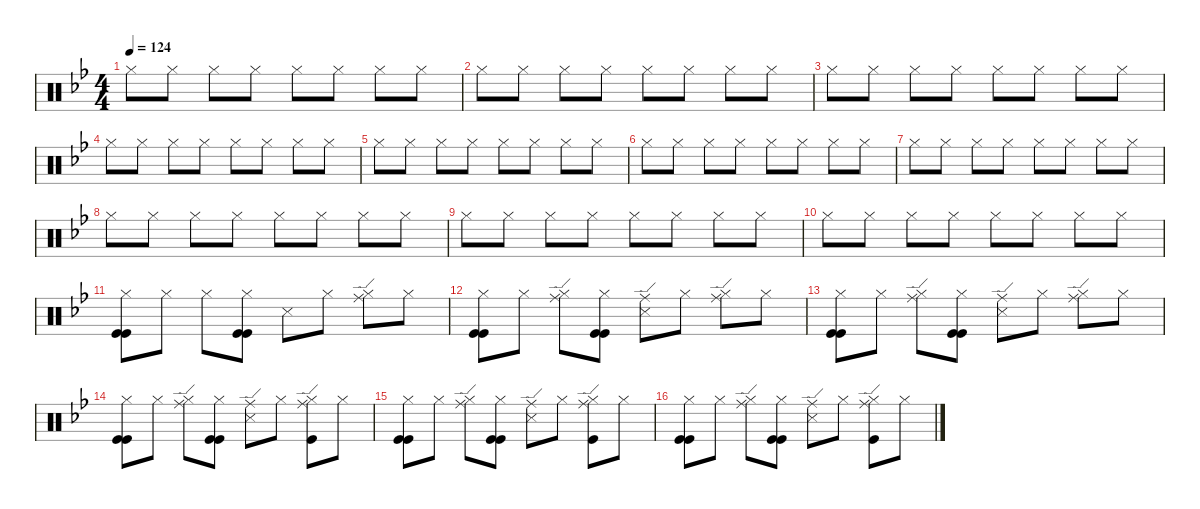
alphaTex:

\defaultSystemsLayout 4
\hideDynamics
\bracketExtendMode nobrackets
\singleTrackTrackNamePolicy hidden
\multiTrackTrackNamePolicy hidden
\firstSystemTrackNameMode fullname
\otherSystemsTrackNameOrientation horizontal
\track ("Percussion" "drm.") {defaultSystemsLayout 4 instrument percussion}
\staff {score}
\articulation defaults
\ts (4 4)
\tempo 124
\clef neutral
\ks gminor "Hi-Hat (closed)"{acc forcenatural}.8{dy f beam Down} "Hi-Hat (closed)"{acc forcenatural}.8{beam Down} "Hi-Hat (closed)"{acc forcenatural}.8{beam Down} "Hi-Hat (closed)"{acc forcenatural}.8{beam Down} "Hi-Hat (closed)"{acc forcenatural}.8{beam Down} "Hi-Hat (closed)"{acc forcenatural}.8{beam Down} "Hi-Hat (closed)"{acc forcenatural}.8{beam Down} "Hi-Hat (closed)"{acc forcenatural}.8{beam Down}
|
"Hi-Hat (closed)"{acc forcenatural}.8{beam Down} "Hi-Hat (closed)"{acc forcenatural}.8{beam Down} "Hi-Hat (closed)"{acc forcenatural}.8{beam Down} "Hi-Hat (closed)"{acc forcenatural}.8{beam Down} "Hi-Hat (closed)"{acc forcenatural}.8{beam Down} "Hi-Hat (closed)"{acc forcenatural}.8{beam Down} "Hi-Hat (closed)"{acc forcenatural}.8{beam Down} "Hi-Hat (closed)"{acc forcenatural}.8{beam Down} |
"Hi-Hat (closed)"{acc forcenatural}.8{beam Down} "Hi-Hat (closed)"{acc forcenatural}.8{beam Down} "Hi-Hat (closed)"{acc forcenatural}.8{beam Down} "Hi-Hat (closed)"{acc forcenatural}.8{beam Down} "Hi-Hat (closed)"{acc forcenatural}.8{beam Down} "Hi-Hat (closed)"{acc forcenatural}.8{beam Down} "Hi-Hat (closed)"{acc forcenatural}.8{beam Down} "Hi-Hat (closed)"{acc forcenatural}.8{beam Down} |
"Hi-Hat (closed)"{acc forcenatural}.8{beam Down} "Hi-Hat (closed)"{acc forcenatural}.8{beam Down} "Hi-Hat (closed)"{acc forcenatural}.8{beam Down} "Hi-Hat (closed)"{acc forcenatural}.8{beam Down} "Hi-Hat (closed)"{acc forcenatural}.8{beam Down} "Hi-Hat (closed)"{acc forcenatural}.8{beam Down} "Hi-Hat (closed)"{acc forcenatural}.8{beam Down} "Hi-Hat (closed)"{acc forcenatural}.8{beam Down} |
"Hi-Hat (closed)"{acc forcenatural}.8{beam Down} "Hi-Hat (closed)"{acc forcenatural}.8{beam Down} "Hi-Hat (closed)"{acc forcenatural}.8{beam Down} "Hi-Hat (closed)"{acc forcenatural}.8{beam Down} "Hi-Hat (closed)"{acc forcenatural}.8{beam Down} "Hi-Hat (closed)"{acc forcenatural}.8{beam Down} "Hi-Hat (closed)"{acc forcenatural}.8{beam Down} "Hi-Hat (closed)"{acc forcenatural}.8{beam Down} |
"Hi-Hat (closed)"{acc forcenatural}.8{beam Down} "Hi-Hat (closed)"{acc forcenatural}.8{beam Down} "Hi-Hat (closed)"{acc forcenatural}.8{beam Down} "Hi-Hat (closed)"{acc forcenatural}.8{beam Down} "Hi-Hat (closed)"{acc forcenatural}.8{beam Down} "Hi-Hat (closed)"{acc forcenatural}.8{beam Down} "Hi-Hat (closed)"{acc forcenatural}.8{beam Down} "Hi-Hat (closed)"{acc forcenatural}.8{beam Down} |
"Hi-Hat (closed)"{acc forcenatural}.8{beam Down} "Hi-Hat (closed)"{acc forcenatural}.8{beam Down} "Hi-Hat (closed)"{acc forcenatural}.8{beam Down} "Hi-Hat (closed)"{acc forcenatural}.8{beam Down} "Hi-Hat (closed)"{acc forcenatural}.8{beam Down} "Hi-Hat (closed)"{acc forcenatural}.8{beam Down} "Hi-Hat (closed)"{acc forcenatural}.8{beam Down} "Hi-Hat (closed)"{acc forcenatural}.8{beam Down} |
"Hi-Hat (closed)"{acc forcenatural}.8{beam Down} "Hi-Hat (closed)"{acc forcenatural}.8{beam Down} "Hi-Hat (closed)"{acc forcenatural}.8{beam Down} "Hi-Hat (closed)"{acc forcenatural}.8{beam Down} "Hi-Hat (closed)"{acc forcenatural}.8{beam Down} "Hi-Hat (closed)"{acc forcenatural}.8{beam Down} "Hi-Hat (closed)"{acc forcenatural}.8{beam Down} "Hi-Hat (closed)"{acc forcenatural}.8{beam Down} |
"Hi-Hat (closed)"{acc forcenatural}.8{beam Down} "Hi-Hat (closed)"{acc forcenatural}.8{beam Down} "Hi-Hat (closed)"{acc forcenatural}.8{beam Down} "Hi-Hat (closed)"{acc forcenatural}.8{beam Down} "Hi-Hat (closed)"{acc forcenatural}.8{beam Down} "Hi-Hat (closed)"{acc forcenatural}.8{beam Down} "Hi-Hat (closed)"{acc forcenatural}.8{beam Down} "Hi-Hat (closed)"{acc forcenatural}.8{beam Down} |
"Hi-Hat (closed)"{acc forcenatural}.8{beam Down} "Hi-Hat (closed)"{acc forcenatural}.8{beam Down} "Hi-Hat (closed)"{acc forcenatural}.8{beam Down} "Hi-Hat (closed)"{acc forcenatural}.8{beam Down} "Hi-Hat (closed)"{acc forcenatural}.8{beam Down} "Hi-Hat (closed)"{acc forcenatural}.8{beam Down} "Hi-Hat (closed)"{acc forcenatural}.8{beam Down} "Hi-Hat (closed)"{acc forcenatural}.8{beam Down} |
("Hi-Hat (closed)"{acc forcenatural} "Kick (hit)"{acc forcenatural} "Kick (hit)"{acc forcenatural}).8{beam Down} "Hi-Hat (closed)"{acc forcenatural}.8{beam Down} "Hi-Hat (closed)"{acc forcenatural}.8{beam Down} ("Hi-Hat (closed)"{acc forcenatural} "Kick (hit)"{acc forcenatural} "Kick (hit)"{acc forcenatural}).8{beam Down} "Snare (side stick) 3"{acc forcenatural}.8{beam Down} "Hi-Hat (closed)"{acc forcenatural}.8{beam Down} ("Ride (edge)"{acc forcenatural} "Hi-Hat (closed)"{acc forcenatural}).8{beam Down} "Hi-Hat (closed)"{acc forcenatural}.8{beam Down} |
("Hi-Hat (closed)"{acc forcenatural} "Kick (hit)"{acc forcenatural} "Kick (hit)"{acc forcenatural}).8{beam Down} "Hi-Hat (closed)"{acc forcenatural}.8{beam Down} ("Ride (edge)"{acc forcenatural} "Hi-Hat (closed)"{acc forcenatural}).8{beam Down} ("Hi-Hat (closed)"{acc forcenatural} "Kick (hit)"{acc forcenatural} "Kick (hit)"{acc forcenatural}).8{beam Down} ("Ride (edge)"{acc forcenatural} "Snare (side stick) 3"{acc forcenatural}).8{beam Down} "Hi-Hat (closed)"{acc forcenatural}.8{beam Down} ("Ride (edge)"{acc forcenatural} "Hi-Hat (closed)"{acc forcenatural}).8{beam Down} "Hi-Hat (closed)"{acc forcenatural}.8{beam Down} |
("Hi-Hat (closed)"{acc forcenatural} "Kick (hit)"{acc forcenatural} "Kick (hit)"{acc forcenatural}).8{beam Down} "Hi-Hat (closed)"{acc forcenatural}.8{beam Down} ("Ride (edge)"{acc forcenatural} "Hi-Hat (closed)"{acc forcenatural}).8{beam Down} ("Hi-Hat (closed)"{acc forcenatural} "Kick (hit)"{acc forcenatural} "Kick (hit)"{acc forcenatural}).8{beam Down} ("Ride (edge)"{acc forcenatural} "Snare (side stick) 3"{acc forcenatural}).8{beam Down} "Hi-Hat (closed)"{acc forcenatural}.8{beam Down} ("Ride (edge)"{acc forcenatural} "Hi-Hat (closed)"{acc forcenatural}).8{beam Down} "Hi-Hat (closed)"{acc forcenatural}.8{beam Down} |
("Hi-Hat (closed)"{acc forcenatural} "Kick (hit)"{acc forcenatural} "Kick (hit)"{acc forcenatural}).8{beam Down} "Hi-Hat (closed)"{acc forcenatural}.8{beam Down} ("Ride (edge)"{acc forcenatural} "Hi-Hat (closed)"{acc forcenatural}).8{beam Down} ("Hi-Hat (closed)"{acc forcenatural} "Kick (hit)"{acc forcenatural} "Kick (hit)"{acc forcenatural}).8{beam Down} ("Ride (edge)"{acc forcenatural} "Snare (side stick) 3"{acc forcenatural}).8{beam Down} "Hi-Hat (closed)"{acc forcenatural}.8{beam Down} ("Ride (edge)"{acc forcenatural} "Hi-Hat (closed)"{acc forcenatural} "Kick (hit)"{acc forcenatural}).8{beam Down} "Hi-Hat (closed)"{acc forcenatural}.8{beam Down} |
("Hi-Hat (closed)"{acc forcenatural} "Kick (hit)"{acc forcenatural} "Kick (hit)"{acc forcenatural}).8{beam Down} "Hi-Hat (closed)"{acc forcenatural}.8{beam Down} ("Ride (edge)"{acc forcenatural} "Hi-Hat (closed)"{acc forcenatural}).8{beam Down} ("Hi-Hat (closed)"{acc forcenatural} "Kick (hit)"{acc forcenatural} "Kick (hit)"{acc forcenatural}).8{beam Down} ("Ride (edge)"{acc forcenatural} "Snare (side stick) 3"{acc forcenatural}).8{beam Down} "Hi-Hat (closed)"{acc forcenatural}.8{beam Down} ("Ride (edge)"{acc forcenatural} "Hi-Hat (closed)"{acc forcenatural} "Kick (hit)"{acc forcenatural}).8{beam Down} "Hi-Hat (closed)"{acc forcenatural}.8{beam Down} |
("Hi-Hat (closed)"{acc forcenatural} "Kick (hit)"{acc forcenatural} "Kick (hit)"{acc forcenatural}).8{beam Down} "Hi-Hat (closed)"{acc forcenatural}.8{beam Down} ("Ride (edge)"{acc forcenatural} "Hi-Hat (closed)"{acc forcenatural}).8{beam Down} ("Hi-Hat (closed)"{acc forcenatural} "Kick (hit)"{acc forcenatural} "Kick (hit)"{acc forcenatural}).8{beam Down} ("Ride (edge)"{acc forcenatural} "Snare (side stick) 3"{acc forcenatural}).8{beam Down} "Hi-Hat (closed)"{acc forcenatural}.8{beam Down} ("Ride (edge)"{acc forcenatural} "Hi-Hat (closed)"{acc forcenatural} "Kick (hit)"{acc forcenatural}).8{beam Down} "Hi-Hat (closed)"{acc forcenatural}.8{beam Down}
